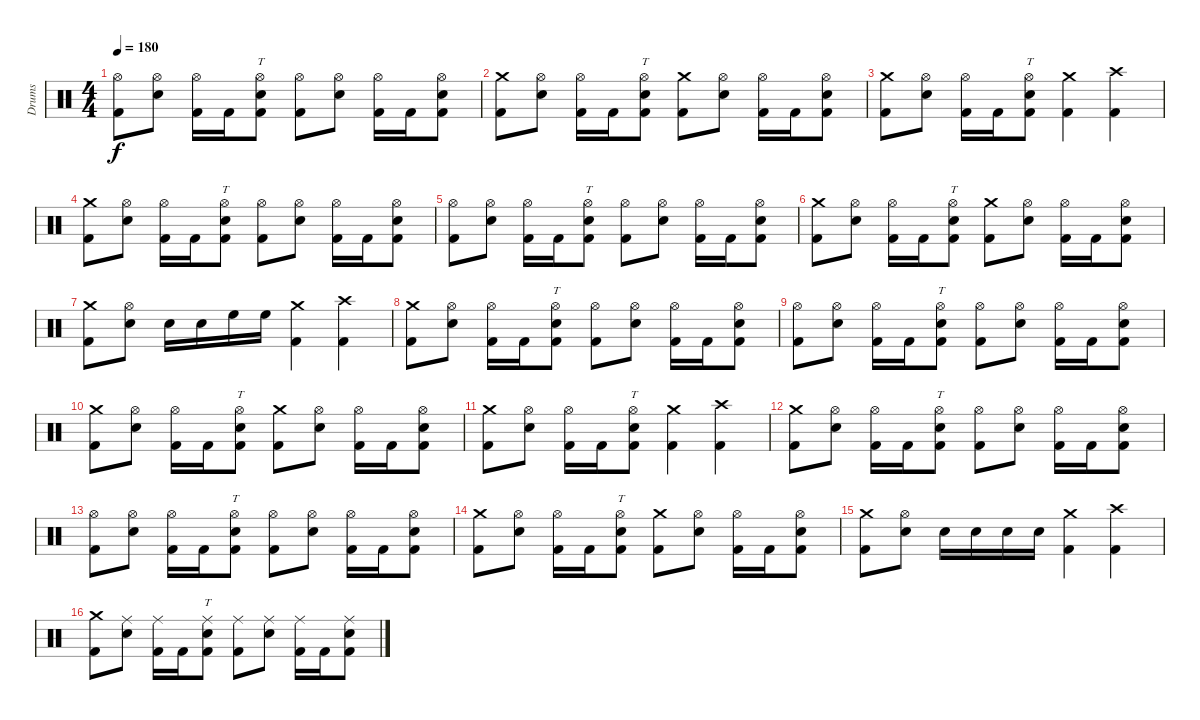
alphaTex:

\track ("Drums" "Drums") {instrument percussion}
\staff {score}
\articulation defaults
\ts (4 4)
\tempo 180
\clef neutral
\ks c
("Hi-Hat (open)" "Kick (hit) 2").8{dy f} ("Hi-Hat (open)" "Electric Snare (hit)").8 ("Hi-Hat (open)" "Kick (hit) 2").16 "Kick (hit) 2".16 ("Hi-Hat (open)" "Electric Snare (hit)" "Kick (hit) 2").8{tt} ("Hi-Hat (open)" "Kick (hit) 2").8 ("Hi-Hat (open)" "Electric Snare (hit)").8 ("Hi-Hat (open)" "Kick (hit) 2").16 "Kick (hit) 2".16 ("Hi-Hat (open)" "Electric Snare (hit)" "Kick (hit) 2").8 |
("Crash medium (hit)" "Kick (hit) 2").8 ("Hi-Hat (open)" "Electric Snare (hit)").8 ("Hi-Hat (open)" "Kick (hit) 2").16 "Kick (hit) 2".16 ("Hi-Hat (open)" "Electric Snare (hit)" "Kick (hit) 2").8{tt} ("Crash medium (hit)" "Kick (hit) 2").8 ("Hi-Hat (open)" "Electric Snare (hit)").8 ("Hi-Hat (open)" "Kick (hit) 2").16 "Kick (hit) 2".16 ("Hi-Hat (open)" "Electric Snare (hit)" "Kick (hit) 2").8 |
("Crash medium (hit)" "Kick (hit) 2").8 ("Hi-Hat (open)" "Electric Snare (hit)").8 ("Hi-Hat (open)" "Kick (hit) 2").16 "Kick (hit) 2".16 ("Hi-Hat (open)" "Electric Snare (hit)" "Kick (hit) 2").8{tt} ("Crash medium (hit)" "Kick (hit) 2").4 ("Crash high (hit)" "Kick (hit) 2").4 |
("Crash medium (hit)" "Kick (hit) 2").8 ("Hi-Hat (open)" "Electric Snare (hit)").8 ("Hi-Hat (open)" "Kick (hit) 2").16 "Kick (hit) 2".16 ("Hi-Hat (open)" "Electric Snare (hit)" "Kick (hit) 2").8{tt} ("Hi-Hat (open)" "Kick (hit) 2").8 ("Hi-Hat (open)" "Electric Snare (hit)").8 ("Hi-Hat (open)" "Kick (hit) 2").16 "Kick (hit) 2".16 ("Hi-Hat (open)" "Electric Snare (hit)" "Kick (hit) 2").8 |
("Hi-Hat (open)" "Kick (hit) 2").8 ("Hi-Hat (open)" "Electric Snare (hit)").8 ("Hi-Hat (open)" "Kick (hit) 2").16 "Kick (hit) 2".16 ("Hi-Hat (open)" "Electric Snare (hit)" "Kick (hit) 2").8{tt} ("Hi-Hat (open)" "Kick (hit) 2").8 ("Hi-Hat (open)" "Electric Snare (hit)").8 ("Hi-Hat (open)" "Kick (hit) 2").16 "Kick (hit) 2".16 ("Hi-Hat (open)" "Electric Snare (hit)" "Kick (hit) 2").8 |
("Crash medium (hit)" "Kick (hit) 2").8 ("Hi-Hat (open)" "Electric Snare (hit)").8 ("Hi-Hat (open)" "Kick (hit) 2").16 "Kick (hit) 2".16 ("Hi-Hat (open)" "Electric Snare (hit)" "Kick (hit) 2").8{tt} ("Crash medium (hit)" "Kick (hit) 2").8 ("Hi-Hat (open)" "Electric Snare (hit)").8 ("Hi-Hat (open)" "Kick (hit) 2").16 "Kick (hit) 2".16 ("Hi-Hat (open)" "Electric Snare (hit)" "Kick (hit) 2").8 |
("Crash medium (hit)" "Kick (hit) 2").8 ("Hi-Hat (open)" "Electric Snare (hit)").8 "Electric Snare (hit)".16 "Electric Snare (hit)".16 "High Floor Tom (hit)".16 "High Floor Tom (hit)".16 ("Crash medium (hit)" "Kick (hit) 2").4 ("Crash high (hit)" "Kick (hit) 2").4 |
("Crash medium (hit)" "Kick (hit) 2").8 ("Hi-Hat (open)" "Electric Snare (hit)").8 ("Hi-Hat (open)" "Kick (hit) 2").16 "Kick (hit) 2".16 ("Hi-Hat (open)" "Electric Snare (hit)" "Kick (hit) 2").8{tt} ("Hi-Hat (open)" "Kick (hit) 2").8 ("Hi-Hat (open)" "Electric Snare (hit)").8 ("Hi-Hat (open)" "Kick (hit) 2").16 "Kick (hit) 2".16 ("Hi-Hat (open)" "Electric Snare (hit)" "Kick (hit) 2").8 |
("Hi-Hat (open)" "Kick (hit) 2").8 ("Hi-Hat (open)" "Electric Snare (hit)").8 ("Hi-Hat (open)" "Kick (hit) 2").16 "Kick (hit) 2".16 ("Hi-Hat (open)" "Electric Snare (hit)" "Kick (hit) 2").8{tt} ("Hi-Hat (open)" "Kick (hit) 2").8 ("Hi-Hat (open)" "Electric Snare (hit)").8 ("Hi-Hat (open)" "Kick (hit) 2").16 "Kick (hit) 2".16 ("Hi-Hat (open)" "Electric Snare (hit)" "Kick (hit) 2").8 |
("Crash medium (hit)" "Kick (hit) 2").8 ("Hi-Hat (open)" "Electric Snare (hit)").8 ("Hi-Hat (open)" "Kick (hit) 2").16 "Kick (hit) 2".16 ("Hi-Hat (open)" "Electric Snare (hit)" "Kick (hit) 2").8{tt} ("Crash medium (hit)" "Kick (hit) 2").8 ("Hi-Hat (open)" "Electric Snare (hit)").8 ("Hi-Hat (open)" "Kick (hit) 2").16 "Kick (hit) 2".16 ("Hi-Hat (open)" "Electric Snare (hit)" "Kick (hit) 2").8 |
("Crash medium (hit)" "Kick (hit) 2").8 ("Hi-Hat (open)" "Electric Snare (hit)").8 ("Hi-Hat (open)" "Kick (hit) 2").16 "Kick (hit) 2".16 ("Hi-Hat (open)" "Electric Snare (hit)" "Kick (hit) 2").8{tt} ("Crash medium (hit)" "Kick (hit) 2").4 ("Crash high (hit)" "Kick (hit) 2").4 |
("Crash medium (hit)" "Kick (hit) 2").8 ("Hi-Hat (open)" "Electric Snare (hit)").8 ("Hi-Hat (open)" "Kick (hit) 2").16 "Kick (hit) 2".16 ("Hi-Hat (open)" "Electric Snare (hit)" "Kick (hit) 2").8{tt} ("Hi-Hat (open)" "Kick (hit) 2").8 ("Hi-Hat (open)" "Electric Snare (hit)").8 ("Hi-Hat (open)" "Kick (hit) 2").16 "Kick (hit) 2".16 ("Hi-Hat (open)" "Electric Snare (hit)" "Kick (hit) 2").8 |
("Hi-Hat (open)" "Kick (hit) 2").8 ("Hi-Hat (open)" "Electric Snare (hit)").8 ("Hi-Hat (open)" "Kick (hit) 2").16 "Kick (hit) 2".16 ("Hi-Hat (open)" "Electric Snare (hit)" "Kick (hit) 2").8{tt} ("Hi-Hat (open)" "Kick (hit) 2").8 ("Hi-Hat (open)" "Electric Snare (hit)").8 ("Hi-Hat (open)" "Kick (hit) 2").16 "Kick (hit) 2".16 ("Hi-Hat (open)" "Electric Snare (hit)" "Kick (hit) 2").8 |
("Crash medium (hit)" "Kick (hit) 2").8 ("Hi-Hat (open)" "Electric Snare (hit)").8 ("Hi-Hat (open)" "Kick (hit) 2").16 "Kick (hit) 2".16 ("Hi-Hat (open)" "Electric Snare (hit)" "Kick (hit) 2").8{tt} ("Crash medium (hit)" "Kick (hit) 2").8 ("Hi-Hat (open)" "Electric Snare (hit)").8 ("Hi-Hat (open)" "Kick (hit) 2").16 "Kick (hit) 2".16 ("Hi-Hat (open)" "Electric Snare (hit)" "Kick (hit) 2").8 |
("Crash medium (hit)" "Kick (hit) 2").8 ("Hi-Hat (open)" "Electric Snare (hit)").8 "Electric Snare (hit)".16 "Electric Snare (hit)".16 "Electric Snare (hit)".16 "Electric Snare (hit)".16 ("Crash medium (hit)" "Kick (hit) 2").4 ("Crash high (hit)" "Kick (hit) 2").4 |
("Crash medium (hit)" "Kick (hit) 2").8 ("Ride (middle)" "Electric Snare (hit)").8 ("Ride (middle)" "Kick (hit) 2").16 "Kick (hit) 2".16 ("Ride (middle)" "Electric Snare (hit)" "Kick (hit) 2").8{tt} ("Ride (middle)" "Kick (hit) 2").8 ("Ride (middle)" "Electric Snare (hit)").8 ("Ride (middle)" "Kick (hit) 2").16 "Kick (hit) 2".16 ("Ride (middle)" "Electric Snare (hit)" "Kick (hit) 2").8
